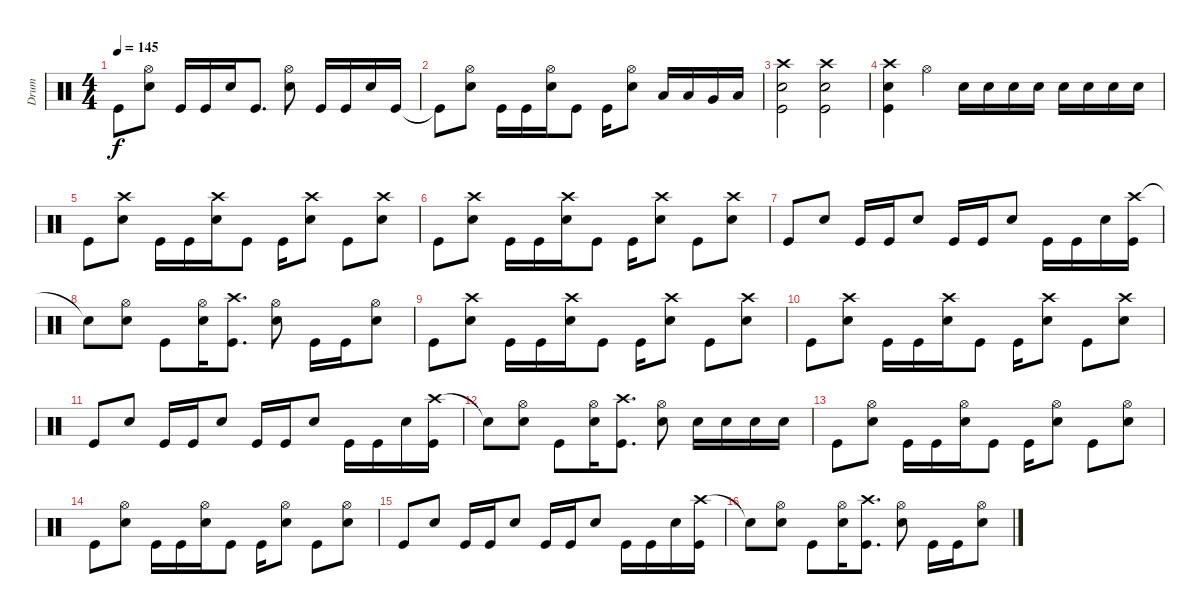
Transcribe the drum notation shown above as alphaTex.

\track ("Drum" "Drum") {instrument percussion}
\staff {score}
\articulation defaults
\ts (4 4)
\tempo 145
\clef neutral
\ks c "Kick (hit)".8{dy f}
("Hi-Hat (open)" "Snare (hit) 2").8 "Kick (hit)".16 "Kick (hit)".16 "Snare (hit) 2".16 "Kick (hit)".8{d} ("Hi-Hat (open)" "Snare (hit) 2").8 "Kick (hit)".16 "Kick (hit)".16 "Snare (hit) 2".16 "Kick (hit)".16 |
"Kick (hit)"{t}.8 ("Hi-Hat (open)" "Snare (hit) 2").8 "Kick (hit)".16 "Kick (hit)".16 ("Hi-Hat (open)" "Snare (hit) 2").16 "Kick (hit)".8 "Kick (hit)".16 ("Hi-Hat (open)" "Snare (hit) 2").8 "Low Tom (hit)".16 "Low Tom (hit)".16 "Very Low Tom (hit)".16 "Low Floor Tom (hit)".16 |
("Crash high (hit)" "Snare (hit) 2" "Kick (hit)").2 ("Crash high (hit)" "Snare (hit) 2" "Kick (hit)").2 |
("Crash high (hit)" "Snare (hit) 2" "Kick (hit)").4 "Hi-Hat (open)".4 "Snare (hit) 2".16 "Snare (hit) 2".16 "Snare (hit) 2".16 "Snare (hit) 2".16 "Snare (hit) 2".16 "Snare (hit) 2".16 "Snare (hit) 2".16 "Snare (hit) 2".16 |
"Kick (hit)".8 ("Crash high (hit)" "Snare (hit) 2").8 "Kick (hit)".16 "Kick (hit)".16 ("Crash high (hit)" "Snare (hit) 2").16 "Kick (hit)".8 "Kick (hit)".16 ("Crash high (hit)" "Snare (hit) 2").8 "Kick (hit)".8 ("Crash high (hit)" "Snare (hit) 2").8 |
"Kick (hit)".8 ("Crash high (hit)" "Snare (hit) 2").8 "Kick (hit)".16 "Kick (hit)".16 ("Crash high (hit)" "Snare (hit) 2").16 "Kick (hit)".8 "Kick (hit)".16 ("Crash high (hit)" "Snare (hit) 2").8 "Kick (hit)".8 ("Crash high (hit)" "Snare (hit) 2").8 |
"Kick (hit)".8 "Snare (hit) 2".8 "Kick (hit)".16 "Kick (hit)".16 "Snare (hit) 2".8 "Kick (hit)".16 "Kick (hit)".16 "Snare (hit) 2".8 "Kick (hit)".16 "Kick (hit)".16 "Snare (hit) 2".16 ("Crash high (hit)" "Kick (hit)").16 |
"Snare (hit)"{t}.8 ("Hi-Hat (open)" "Snare (hit) 2").8 "Kick (hit)".8 ("Hi-Hat (open)" "Snare (hit) 2").16 ("Crash high (hit)" "Kick (hit)").8{d} ("Hi-Hat (open)" "Snare (hit) 2").8 "Kick (hit)".16 "Kick (hit)".16 ("Hi-Hat (open)" "Snare (hit) 2").8 |
"Kick (hit)".8 ("Crash high (hit)" "Snare (hit) 2").8 "Kick (hit)".16 "Kick (hit)".16 ("Crash high (hit)" "Snare (hit) 2").16 "Kick (hit)".8 "Kick (hit)".16 ("Crash high (hit)" "Snare (hit) 2").8 "Kick (hit)".8 ("Crash high (hit)" "Snare (hit) 2").8 |
"Kick (hit)".8 ("Crash high (hit)" "Snare (hit) 2").8 "Kick (hit)".16 "Kick (hit)".16 ("Crash high (hit)" "Snare (hit) 2").16 "Kick (hit)".8 "Kick (hit)".16 ("Crash high (hit)" "Snare (hit) 2").8 "Kick (hit)".8 ("Crash high (hit)" "Snare (hit) 2").8 |
"Kick (hit)".8 "Snare (hit) 2".8 "Kick (hit)".16 "Kick (hit)".16 "Snare (hit) 2".8 "Kick (hit)".16 "Kick (hit)".16 "Snare (hit) 2".8 "Kick (hit)".16 "Kick (hit)".16 "Snare (hit) 2".16 ("Crash high (hit)" "Kick (hit)").16 |
"Snare (hit)"{t}.8 ("Hi-Hat (open)" "Snare (hit) 2").8 "Kick (hit)".8 ("Hi-Hat (open)" "Snare (hit) 2").16 ("Crash high (hit)" "Kick (hit)").8{d} ("Hi-Hat (open)" "Snare (hit) 2").8 "Snare (hit) 2".16 "Snare (hit) 2".16 "Snare (hit) 2".16 "Snare (hit) 2".16 |
"Kick (hit)".8 ("Hi-Hat (open)" "Snare (hit) 2").8 "Kick (hit)".16 "Kick (hit)".16 ("Hi-Hat (open)" "Snare (hit) 2").16 "Kick (hit)".8 "Kick (hit)".16 ("Hi-Hat (open)" "Snare (hit) 2").8 "Kick (hit)".8 ("Hi-Hat (open)" "Snare (hit) 2").8 |
"Kick (hit)".8 ("Hi-Hat (open)" "Snare (hit) 2").8 "Kick (hit)".16 "Kick (hit)".16 ("Hi-Hat (open)" "Snare (hit) 2").16 "Kick (hit)".8 "Kick (hit)".16 ("Hi-Hat (open)" "Snare (hit) 2").8 "Kick (hit)".8 ("Hi-Hat (open)" "Snare (hit) 2").8 |
"Kick (hit)".8 "Snare (hit) 2".8 "Kick (hit)".16 "Kick (hit)".16 "Snare (hit) 2".8 "Kick (hit)".16 "Kick (hit)".16 "Snare (hit) 2".8 "Kick (hit)".16 "Kick (hit)".16 "Snare (hit) 2".16 ("Crash high (hit)" "Kick (hit)").16 |
"Snare (hit)"{t}.8 ("Hi-Hat (open)" "Snare (hit) 2").8 "Kick (hit)".8 ("Hi-Hat (open)" "Snare (hit) 2").16 ("Crash high (hit)" "Kick (hit)").8{d} ("Hi-Hat (open)" "Snare (hit) 2").8 "Kick (hit)".16 "Kick (hit)".16 ("Hi-Hat (open)" "Snare (hit) 2").8
